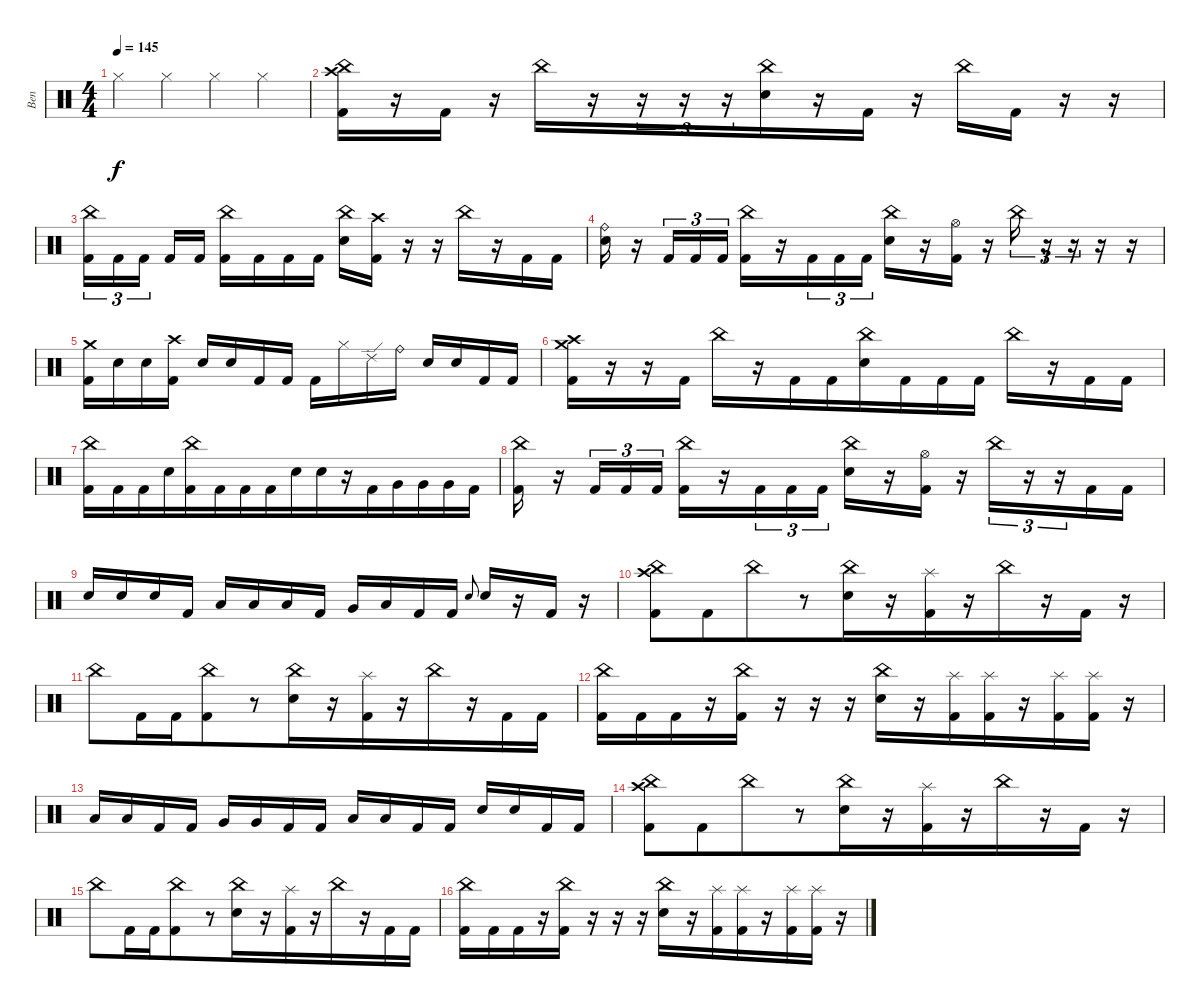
\track ("Ben" "Ben") {instrument percussion}
\staff {score}
\articulation defaults
\ts (4 4)
\tempo 145
\clef neutral
\ks c "Hi-Hat (closed)".4{dy f beam merge} "Hi-Hat (closed)".4{beam merge} "Hi-Hat (closed)".4 "Hi-Hat (closed)".4
|
("China (hit)" "Kick (hit) 2" "Crash high (hit)").16 r.16 "Kick (hit) 2".16 r.16 "China (hit)".16{beam merge} r.16 r.16{tu (3 2) beam merge} r.16{tu (3 2) beam merge} r.16{tu (3 2)} ("Electric Snare (hit)" "China (hit)").16 r.16 "Kick (hit) 2".16 r.16 "China (hit)".16 "Kick (hit) 2".16 r.16 r.16 |
("Kick (hit) 2" "China (hit)").16{tu (3 2)} "Kick (hit) 2".16{tu (3 2)} "Kick (hit) 2".16{tu (3 2) beam splitsecondary} "Kick (hit) 2".16 "Kick (hit) 2".16 ("Kick (hit) 2" "China (hit)").16 "Kick (hit) 2".16 "Kick (hit) 2".16 "Kick (hit) 2".16 ("Electric Snare (hit)" "China (hit)").16{beam merge} ("Kick (hit) 2" "Crash high (hit)").16 r.16 r.16 "China (hit)".16 r.16 "Kick (hit) 2".16 "Kick (hit) 2".16 |
("Electric Snare (hit)" "Ride (bell)").16 r.16{beam merge} "Kick (hit) 2".16{tu (3 2)} "Kick (hit) 2".16{tu (3 2)} "Kick (hit) 2".16{tu (3 2)} ("China (hit)" "Kick (hit) 2").16{beam merge} r.16{beam merge} "Kick (hit) 2".16{tu (3 2)} "Kick (hit) 2".16{tu (3 2)} "Kick (hit) 2".16{tu (3 2)} ("China (hit)" "Electric Snare (hit)").16{beam merge} r.16 ("Kick (hit) 2" "Hi-Hat (open)").16 r.16 "China (hit)".16{tu (3 2) beam merge} r.16{tu (3 2) beam merge} r.16{tu (3 2)} r.16{beam merge} r.16 |
("Crash medium (hit)" "Kick (hit) 2").16{beam merge} "Electric Snare (hit)".16{beam merge} "Electric Snare (hit)".16 ("Kick (hit) 2" "Crash high (hit)").16 "Electric Snare (hit)".16 "Electric Snare (hit)".16{beam merge} "Kick (hit) 2".16 "Kick (hit) 2".16 "Kick (hit) 2".16{beam merge} "Hi-Hat (closed)".16{beam merge} "Ride (edge) 2".16{beam merge} "Ride (bell)".16 "Electric Snare (hit)".16{beam merge} "Electric Snare (hit)".16 "Kick (hit) 2".16{beam merge} "Kick (hit) 2".16 |
("Crash high (hit)" "Kick (hit) 2" "Crash medium (hit)").16 r.16 r.16 "Kick (hit) 2".16 "China (hit)".16{beam merge} r.16 "Kick (hit) 2".16 "Kick (hit) 2".16{beam merge} ("Electric Snare (hit)" "China (hit)").16 "Kick (hit) 2".16 "Kick (hit) 2".16 "Kick (hit) 2".16 "China (hit)".16 r.16 "Kick (hit) 2".16 "Kick (hit) 2".16 |
("China (hit)" "Kick (hit) 2").16{beam merge} "Kick (hit) 2".16{beam merge} "Kick (hit) 2".16{beam merge} "Electric Snare (hit)".16{beam merge} ("Kick (hit) 2" "China (hit)").16{beam merge} "Kick (hit) 2".16{beam merge} "Kick (hit) 2".16{beam merge} "Kick (hit) 2".16{beam merge} "Electric Snare (hit)".16{beam merge} "Electric Snare (hit)".16{beam merge} r.16{beam merge} "Kick (hit) 2".16{beam merge} "Very Low Tom (hit)".16{beam merge} "Very Low Tom (hit)".16{beam merge} "Very Low Tom (hit)".16{beam merge} "Kick (hit) 2".16 |
("Kick (hit) 2" "China (hit)").16 r.16{beam merge} "Kick (hit) 2".16{tu (3 2)} "Kick (hit) 2".16{tu (3 2)} "Kick (hit) 2".16{tu (3 2)} ("China (hit)" "Kick (hit) 2").16{beam merge} r.16{beam merge} "Kick (hit) 2".16{tu (3 2)} "Kick (hit) 2".16{tu (3 2)} "Kick (hit) 2".16{tu (3 2)} ("China (hit)" "Electric Snare (hit)").16{beam merge} r.16 ("Kick (hit) 2" "Hi-Hat (open)").16 r.16 "China (hit)".16{tu (3 2) beam merge} r.16{tu (3 2) beam merge} r.16{tu (3 2)} "Kick (hit) 2".16{beam merge} "Kick (hit) 2".16 |
"Electric Snare (hit)".16{beam merge} "Electric Snare (hit)".16{beam merge} "Electric Snare (hit)".16 "Kick (hit) 2".16 "Low Tom (hit)".16 "Low Tom (hit)".16 "Low Tom (hit)".16{beam merge} "Kick (hit) 2".16 "Very Low Tom (hit)".16{beam merge} "Low Floor Tom (hit)".16 "Kick (hit) 2".16 "Kick (hit) 2".16 "Electric Snare (hit)".8{gr onbeat} "Electric Snare (hit)".16 r.16{beam merge} "Kick (hit) 2".16 r.16 |
("Kick (hit) 2" "Crash high (hit)" "China (hit)").8 "Kick (hit) 2".8{beam merge} "China (hit)".8{beam merge} r.8{beam merge} ("Electric Snare (hit)" "China (hit)").16 r.16 ("Kick (hit) 2" "Splash (hit)").16{beam merge} r.16 "China (hit)".16 r.16 "Kick (hit) 2".16 r.16 |
"China (hit)".8{beam merge} "Kick (hit) 2".16 "Kick (hit) 2".16{beam merge} ("Kick (hit) 2" "China (hit)").8{beam merge} r.8{beam merge} ("Electric Snare (hit)" "China (hit)").16 r.16 ("Kick (hit) 2" "Splash (hit)").16{beam merge} r.16 "China (hit)".16 r.16 "Kick (hit) 2".16 "Kick (hit) 2".16 |
("China (hit)" "Kick (hit) 2").16 "Kick (hit) 2".16 "Kick (hit) 2".16{beam merge} r.16{beam merge} ("China (hit)" "Kick (hit) 2").16 r.16{beam merge} r.16{beam merge} r.16{beam merge} ("China (hit)" "Electric Snare (hit)").16 r.16 ("Splash (hit)" "Kick (hit) 2").16 ("Splash (hit)" "Kick (hit) 2").16{beam merge} r.16 ("Splash (hit)" "Kick (hit) 2").16{beam merge} ("Splash (hit)" "Kick (hit) 2").16{beam merge} r.16 |
"Low Tom (hit)".16{beam merge} "Low Tom (hit)".16{beam merge} "Kick (hit) 2".16 "Kick (hit) 2".16 "Very Low Tom (hit)".16 "Very Low Tom (hit)".16{beam merge} "Kick (hit) 2".16{beam merge} "Kick (hit) 2".16 "Low Floor Tom (hit)".16 "Low Floor Tom (hit)".16 "Kick (hit) 2".16 "Kick (hit) 2".16 "Electric Snare (hit)".16 "Electric Snare (hit)".16 "Kick (hit) 2".16 "Kick (hit) 2".16 |
("Kick (hit) 2" "Crash high (hit)" "China (hit)").8 "Kick (hit) 2".8{beam merge} "China (hit)".8{beam merge} r.8{beam merge} ("Electric Snare (hit)" "China (hit)").16 r.16 ("Kick (hit) 2" "Splash (hit)").16{beam merge} r.16 "China (hit)".16 r.16 "Kick (hit) 2".16{beam merge} r.16 |
"China (hit)".8{beam merge} "Kick (hit) 2".16 "Kick (hit) 2".16{beam merge} ("Kick (hit) 2" "China (hit)").8{beam merge} r.8{beam merge} ("Electric Snare (hit)" "China (hit)").16 r.16 ("Kick (hit) 2" "Splash (hit)").16{beam merge} r.16 "China (hit)".16 r.16 "Kick (hit) 2".16 "Kick (hit) 2".16 |
("China (hit)" "Kick (hit) 2").16 "Kick (hit) 2".16 "Kick (hit) 2".16{beam merge} r.16{beam merge} ("China (hit)" "Kick (hit) 2").16 r.16{beam merge} r.16{beam merge} r.16{beam merge} ("China (hit)" "Electric Snare (hit)").16 r.16 ("Splash (hit)" "Kick (hit) 2").16 ("Splash (hit)" "Kick (hit) 2").16{beam merge} r.16 ("Splash (hit)" "Kick (hit) 2").16{beam merge} ("Splash (hit)" "Kick (hit) 2").16{beam merge} r.16
